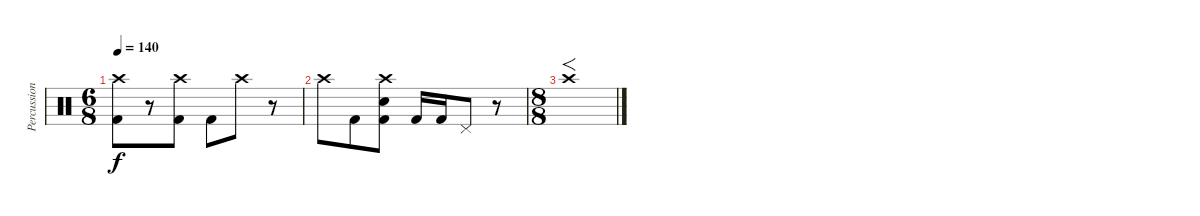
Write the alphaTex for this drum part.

\track ("Percussion" "Percussion") {instrument percussion}
\staff {score}
\articulation defaults
\ts (6 8)
\tempo 140
\clef neutral
\ks c
("Crash high (hit)" "Kick (hit) 2").8{dy f} r.8 ("Crash high (hit)" "Kick (hit) 2").8 "Kick (hit) 2".8 "Crash high (hit)".8 r.8 |
"Crash high (hit)".8 "Kick (hit) 2".8 ("Crash high (hit)" "Electric Snare (hit)" "Kick (hit) 2").8 "Kick (hit) 2".16 "Kick (hit) 2".16 "Pedal Hi-Hat (hit)".8 r.8 |
\ts (8 8)
"Crash high (hit)".1{f}
